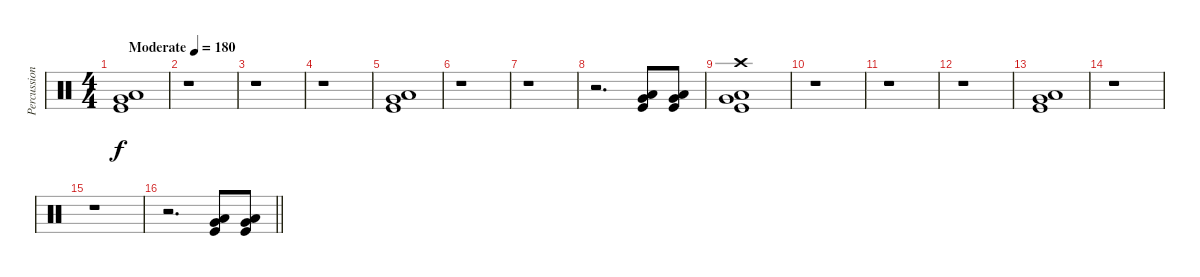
\track ("Percussion" "Percussion") {instrument percussion}
\staff {score}
\articulation defaults
\ts (4 4)
\tempo (180 "Moderate")
\clef neutral
\ks c
("Very Low Tom (hit)" "Low Floor Tom (hit)" "Kick (hit)").1{dy f} |
r.1 |
r.1 |
r.1 |
("Very Low Tom (hit)" "Low Floor Tom (hit)" "Kick (hit)").1 |
r.1 |
r.1 |
r.2{d} ("Very Low Tom (hit)" "Low Floor Tom (hit)" "Kick (hit)").8 ("Very Low Tom (hit)" "Low Floor Tom (hit)" "Kick (hit)").8 |
("Crash high (hit)" "Very Low Tom (hit)" "Low Floor Tom (hit)" "Kick (hit)").1 |
r.1 |
r.1 |
r.1 |
("Very Low Tom (hit)" "Low Floor Tom (hit)" "Kick (hit)").1 |
r.1 |
r.1 |
\barLineRight lightlight
r.2{d} ("Very Low Tom (hit)" "Low Floor Tom (hit)" "Kick (hit)").8 ("Very Low Tom (hit)" "Low Floor Tom (hit)" "Kick (hit)").8
